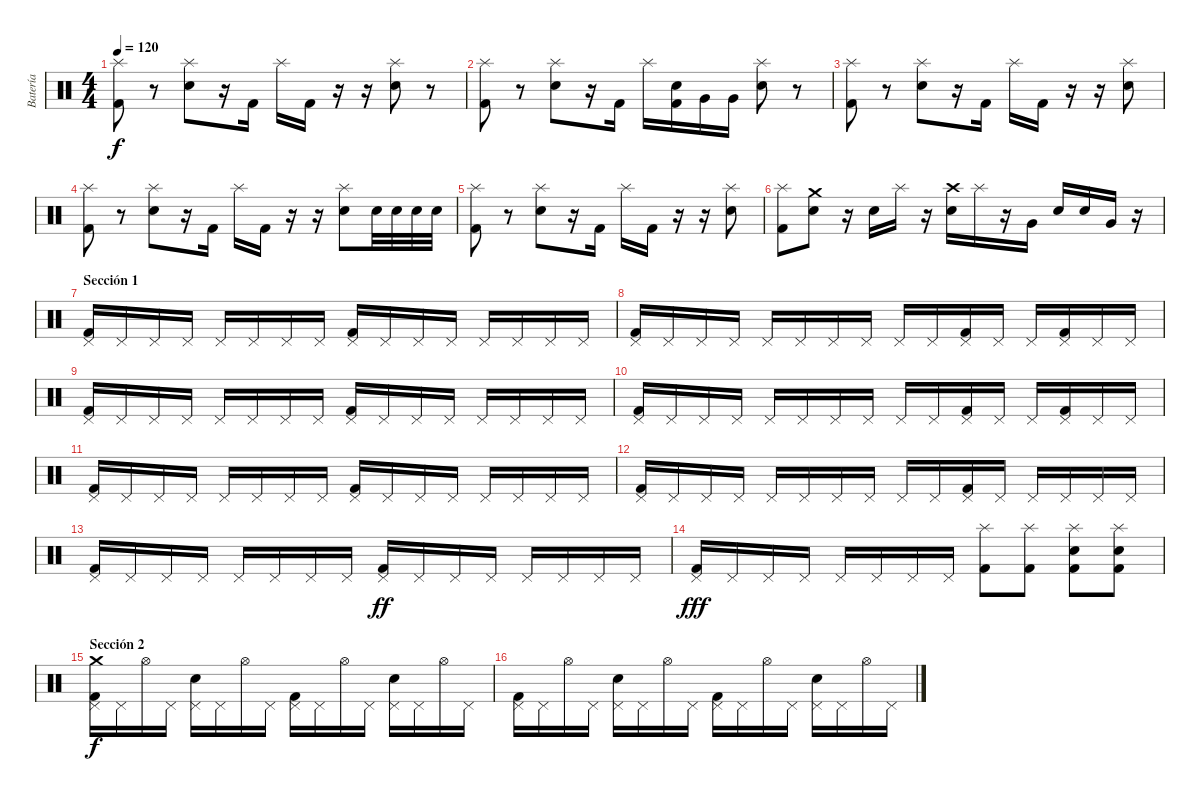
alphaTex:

\track ("Batería" "Batería") {instrument percussion}
\staff {score}
\articulation defaults
\ts (4 4)
\tempo 120
\clef neutral
\ks c
("Splash (hit)" "Kick (hit) 2").8{dy f} r.8 ("Splash (hit)" "Electric Snare (hit)").8 r.16 "Kick (hit) 2".16 "Splash (hit)".16 "Kick (hit) 2".16 r.16 r.16 ("Splash (hit)" "Electric Snare (hit)").8 r.8 |
("Splash (hit)" "Kick (hit) 2").8 r.8 ("Splash (hit)" "Electric Snare (hit)").8 r.16 "Kick (hit) 2".16 "Splash (hit)".16 ("Electric Snare (hit)" "Kick (hit) 2").16 "Very Low Tom (hit)".16 "Very Low Tom (hit)".16 ("Splash (hit)" "Electric Snare (hit)").8 r.8 |
("Splash (hit)" "Kick (hit) 2").8 r.8 ("Splash (hit)" "Electric Snare (hit)").8 r.16 "Kick (hit) 2".16 "Splash (hit)".16 "Kick (hit) 2".16 r.16 r.16 ("Splash (hit)" "Electric Snare (hit)").8 |
("Splash (hit)" "Kick (hit) 2").8 r.8 ("Splash (hit)" "Electric Snare (hit)").8 r.16 "Kick (hit) 2".16 "Splash (hit)".16 "Kick (hit) 2".16 r.16 r.16 ("Splash (hit)" "Electric Snare (hit)").8 "Electric Snare (hit)".32 "Electric Snare (hit)".32 "Electric Snare (hit)".32 "Electric Snare (hit)".32 |
("Splash (hit)" "Kick (hit) 2").8 r.8 ("Splash (hit)" "Electric Snare (hit)").8 r.16 "Kick (hit) 2".16 "Splash (hit)".16 "Kick (hit) 2".16 r.16 r.16 ("Splash (hit)" "Electric Snare (hit)").8 |
("Splash (hit)" "Kick (hit) 2").8 ("Crash medium (hit)" "Electric Snare (hit)").8 r.16 "Electric Snare (hit)".16 "Splash (hit)".16 r.16 ("Crash high (hit)" "Electric Snare (hit)").16 "Splash (hit)".16 r.16 "Very Low Tom (hit)".16 "Electric Snare (hit)".16 "Electric Snare (hit)".16 "Very Low Tom (hit)".16 r.16 |
\section ("" "Sección 1")
("Pedal Hi-Hat (hit)" "Kick (hit) 2").16 "Pedal Hi-Hat (hit)".16 "Pedal Hi-Hat (hit)".16 "Pedal Hi-Hat (hit)".16 "Pedal Hi-Hat (hit)".16 "Pedal Hi-Hat (hit)".16 "Pedal Hi-Hat (hit)".16 "Pedal Hi-Hat (hit)".16 ("Pedal Hi-Hat (hit)" "Kick (hit) 2").16 "Pedal Hi-Hat (hit)".16 "Pedal Hi-Hat (hit)".16 "Pedal Hi-Hat (hit)".16 "Pedal Hi-Hat (hit)".16 "Pedal Hi-Hat (hit)".16 "Pedal Hi-Hat (hit)".16 "Pedal Hi-Hat (hit)".16 |
("Pedal Hi-Hat (hit)" "Kick (hit) 2").16 "Pedal Hi-Hat (hit)".16 "Pedal Hi-Hat (hit)".16 "Pedal Hi-Hat (hit)".16 "Pedal Hi-Hat (hit)".16 "Pedal Hi-Hat (hit)".16 "Pedal Hi-Hat (hit)".16 "Pedal Hi-Hat (hit)".16 "Pedal Hi-Hat (hit)".16 "Pedal Hi-Hat (hit)".16 ("Pedal Hi-Hat (hit)" "Kick (hit) 2").16 "Pedal Hi-Hat (hit)".16 "Pedal Hi-Hat (hit)".16 ("Pedal Hi-Hat (hit)" "Kick (hit) 2").16 "Pedal Hi-Hat (hit)".16 "Pedal Hi-Hat (hit)".16 |
("Pedal Hi-Hat (hit)" "Kick (hit) 2").16 "Pedal Hi-Hat (hit)".16 "Pedal Hi-Hat (hit)".16 "Pedal Hi-Hat (hit)".16 "Pedal Hi-Hat (hit)".16 "Pedal Hi-Hat (hit)".16 "Pedal Hi-Hat (hit)".16 "Pedal Hi-Hat (hit)".16 ("Pedal Hi-Hat (hit)" "Kick (hit) 2").16 "Pedal Hi-Hat (hit)".16 "Pedal Hi-Hat (hit)".16 "Pedal Hi-Hat (hit)".16 "Pedal Hi-Hat (hit)".16 "Pedal Hi-Hat (hit)".16 "Pedal Hi-Hat (hit)".16 "Pedal Hi-Hat (hit)".16 |
("Pedal Hi-Hat (hit)" "Kick (hit) 2").16 "Pedal Hi-Hat (hit)".16 "Pedal Hi-Hat (hit)".16 "Pedal Hi-Hat (hit)".16 "Pedal Hi-Hat (hit)".16 "Pedal Hi-Hat (hit)".16 "Pedal Hi-Hat (hit)".16 "Pedal Hi-Hat (hit)".16 "Pedal Hi-Hat (hit)".16 "Pedal Hi-Hat (hit)".16 ("Pedal Hi-Hat (hit)" "Kick (hit) 2").16 "Pedal Hi-Hat (hit)".16 "Pedal Hi-Hat (hit)".16 ("Pedal Hi-Hat (hit)" "Kick (hit) 2").16 "Pedal Hi-Hat (hit)".16 "Pedal Hi-Hat (hit)".16 |
("Pedal Hi-Hat (hit)" "Kick (hit) 2").16 "Pedal Hi-Hat (hit)".16 "Pedal Hi-Hat (hit)".16 "Pedal Hi-Hat (hit)".16 "Pedal Hi-Hat (hit)".16 "Pedal Hi-Hat (hit)".16 "Pedal Hi-Hat (hit)".16 "Pedal Hi-Hat (hit)".16 ("Pedal Hi-Hat (hit)" "Kick (hit) 2").16 "Pedal Hi-Hat (hit)".16 "Pedal Hi-Hat (hit)".16 "Pedal Hi-Hat (hit)".16 "Pedal Hi-Hat (hit)".16 "Pedal Hi-Hat (hit)".16 "Pedal Hi-Hat (hit)".16 "Pedal Hi-Hat (hit)".16 |
("Pedal Hi-Hat (hit)" "Kick (hit) 2").16 "Pedal Hi-Hat (hit)".16 "Pedal Hi-Hat (hit)".16 "Pedal Hi-Hat (hit)".16 "Pedal Hi-Hat (hit)".16 "Pedal Hi-Hat (hit)".16 "Pedal Hi-Hat (hit)".16 "Pedal Hi-Hat (hit)".16 "Pedal Hi-Hat (hit)".16 "Pedal Hi-Hat (hit)".16 ("Pedal Hi-Hat (hit)" "Kick (hit) 2").16 "Pedal Hi-Hat (hit)".16 "Pedal Hi-Hat (hit)".16 "Pedal Hi-Hat (hit)".16 "Pedal Hi-Hat (hit)".16 "Pedal Hi-Hat (hit)".16 |
("Pedal Hi-Hat (hit)" "Kick (hit) 2").16 "Pedal Hi-Hat (hit)".16 "Pedal Hi-Hat (hit)".16 "Pedal Hi-Hat (hit)".16 "Pedal Hi-Hat (hit)".16 "Pedal Hi-Hat (hit)".16 "Pedal Hi-Hat (hit)".16 "Pedal Hi-Hat (hit)".16 ("Pedal Hi-Hat (hit)" "Kick (hit) 2").16{dy ff} "Pedal Hi-Hat (hit)".16 "Pedal Hi-Hat (hit)".16 "Pedal Hi-Hat (hit)".16 "Pedal Hi-Hat (hit)".16 "Pedal Hi-Hat (hit)".16 "Pedal Hi-Hat (hit)".16 "Pedal Hi-Hat (hit)".16 |
("Pedal Hi-Hat (hit)" "Kick (hit) 2").16{dy fff} "Pedal Hi-Hat (hit)".16 "Pedal Hi-Hat (hit)".16 "Pedal Hi-Hat (hit)".16 "Pedal Hi-Hat (hit)".16 "Pedal Hi-Hat (hit)".16 "Pedal Hi-Hat (hit)".16 "Pedal Hi-Hat (hit)".16 ("Splash (hit)" "Kick (hit) 2").8 ("Splash (hit)" "Kick (hit) 2").8 ("Splash (hit)" "Electric Snare (hit)" "Kick (hit) 2").8 ("Splash (hit)" "Electric Snare (hit)" "Kick (hit) 2").8 |
\section ("" "Sección 2")
("Pedal Hi-Hat (hit)" "Crash medium (hit)" "Kick (hit) 2").16{dy f} "Pedal Hi-Hat (hit)".16 "Hi-Hat (open)".16 "Pedal Hi-Hat (hit)".16 ("Pedal Hi-Hat (hit)" "Electric Snare (hit)").16 "Pedal Hi-Hat (hit)".16 "Hi-Hat (open)".16 "Pedal Hi-Hat (hit)".16 ("Pedal Hi-Hat (hit)" "Kick (hit) 2").16 "Pedal Hi-Hat (hit)".16 "Hi-Hat (open)".16 "Pedal Hi-Hat (hit)".16 ("Pedal Hi-Hat (hit)" "Electric Snare (hit)").16 "Pedal Hi-Hat (hit)".16 "Hi-Hat (open)".16 "Pedal Hi-Hat (hit)".16 |
("Pedal Hi-Hat (hit)" "Kick (hit) 2").16 "Pedal Hi-Hat (hit)".16 "Hi-Hat (open)".16 "Pedal Hi-Hat (hit)".16 ("Pedal Hi-Hat (hit)" "Electric Snare (hit)").16 "Pedal Hi-Hat (hit)".16 "Hi-Hat (open)".16 "Pedal Hi-Hat (hit)".16 ("Pedal Hi-Hat (hit)" "Kick (hit) 2").16 "Pedal Hi-Hat (hit)".16 "Hi-Hat (open)".16 "Pedal Hi-Hat (hit)".16 ("Pedal Hi-Hat (hit)" "Electric Snare (hit)").16 "Pedal Hi-Hat (hit)".16 "Hi-Hat (open)".16 "Pedal Hi-Hat (hit)".16
